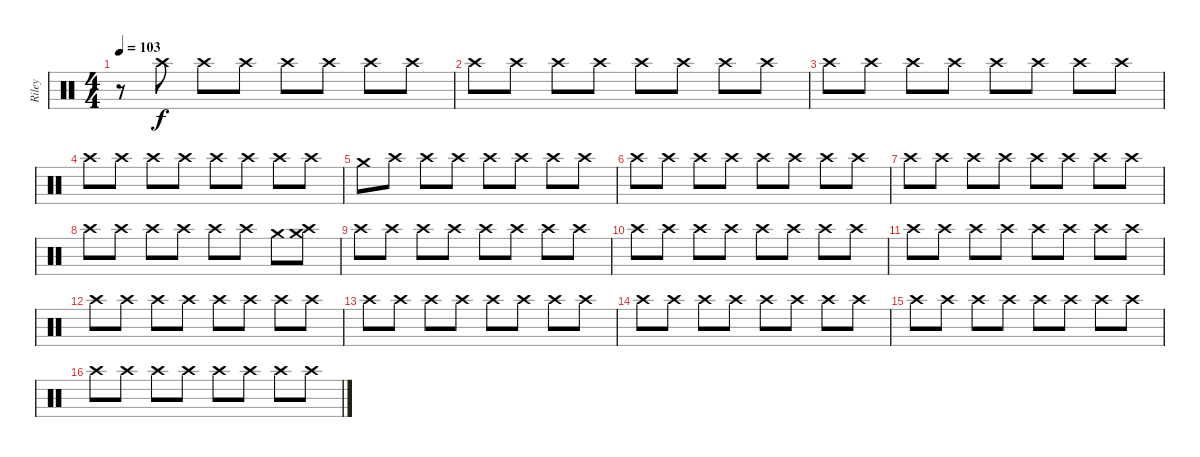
\track ("Riley" "Riley") {instrument percussion}
\staff {score}
\articulation defaults
\ts (4 4)
\tempo 103
\clef neutral
\ks c
r.8{dy f} "Crash high (hit)".8 "Crash high (hit)".8 "Crash high (hit)".8 "Crash high (hit)".8 "Crash high (hit)".8 "Crash high (hit)".8 "Crash high (hit)".8 |
"Crash high (hit)".8 "Crash high (hit)".8 "Crash high (hit)".8 "Crash high (hit)".8 "Crash high (hit)".8 "Crash high (hit)".8 "Crash high (hit)".8 "Crash high (hit)".8 |
"Crash high (hit)".8 "Crash high (hit)".8 "Crash high (hit)".8 "Crash high (hit)".8 "Crash high (hit)".8 "Crash high (hit)".8 "Crash high (hit)".8 "Crash high (hit)".8 |
"Crash high (hit)".8 "Crash high (hit)".8 "Crash high (hit)".8 "Crash high (hit)".8 "Crash high (hit)".8 "Crash high (hit)".8 "Crash high (hit)".8 "Crash high (hit)".8 |
"Crash medium (hit)".8 "Crash high (hit)".8 "Crash high (hit)".8 "Crash high (hit)".8 "Crash high (hit)".8 "Crash high (hit)".8 "Crash high (hit)".8 "Crash high (hit)".8 |
"Crash high (hit)".8 "Crash high (hit)".8 "Crash high (hit)".8 "Crash high (hit)".8 "Crash high (hit)".8 "Crash high (hit)".8 "Crash high (hit)".8 "Crash high (hit)".8 |
"Crash high (hit)".8 "Crash high (hit)".8 "Crash high (hit)".8 "Crash high (hit)".8 "Crash high (hit)".8 "Crash high (hit)".8 "Crash high (hit)".8 "Crash high (hit)".8 |
"Crash high (hit)".8 "Crash high (hit)".8 "Crash high (hit)".8 "Crash high (hit)".8 "Crash high (hit)".8 "Crash high (hit)".8 "Crash medium (hit)".8 ("Crash high (hit)" "Crash medium (hit)").8 |
"Crash high (hit)".8 "Crash high (hit)".8 "Crash high (hit)".8 "Crash high (hit)".8 "Crash high (hit)".8 "Crash high (hit)".8 "Crash high (hit)".8 "Crash high (hit)".8 |
"Crash high (hit)".8 "Crash high (hit)".8 "Crash high (hit)".8 "Crash high (hit)".8 "Crash high (hit)".8 "Crash high (hit)".8 "Crash high (hit)".8 "Crash high (hit)".8 |
"Crash high (hit)".8 "Crash high (hit)".8 "Crash high (hit)".8 "Crash high (hit)".8 "Crash high (hit)".8 "Crash high (hit)".8 "Crash high (hit)".8 "Crash high (hit)".8 |
"Crash high (hit)".8 "Crash high (hit)".8 "Crash high (hit)".8 "Crash high (hit)".8 "Crash high (hit)".8 "Crash high (hit)".8 "Crash high (hit)".8 "Crash high (hit)".8 |
"Crash high (hit)".8 "Crash high (hit)".8 "Crash high (hit)".8 "Crash high (hit)".8 "Crash high (hit)".8 "Crash high (hit)".8 "Crash high (hit)".8 "Crash high (hit)".8 |
"Crash high (hit)".8 "Crash high (hit)".8 "Crash high (hit)".8 "Crash high (hit)".8 "Crash high (hit)".8 "Crash high (hit)".8 "Crash high (hit)".8 "Crash high (hit)".8 |
"Crash high (hit)".8 "Crash high (hit)".8 "Crash high (hit)".8 "Crash high (hit)".8 "Crash high (hit)".8 "Crash high (hit)".8 "Crash high (hit)".8 "Crash high (hit)".8 |
"Crash high (hit)".8 "Crash high (hit)".8 "Crash high (hit)".8 "Crash high (hit)".8 "Crash high (hit)".8 "Crash high (hit)".8 "Crash high (hit)".8 "Crash high (hit)".8
